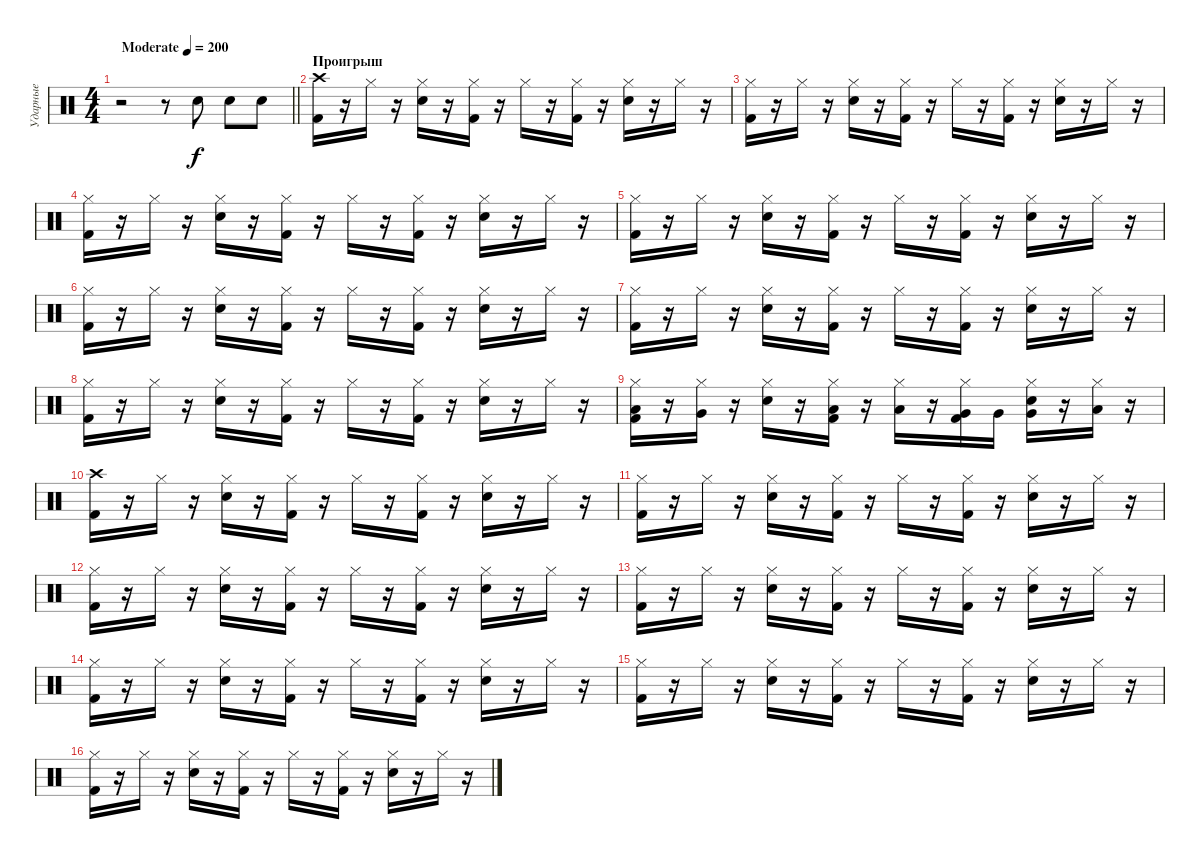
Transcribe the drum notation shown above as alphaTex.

\track ("Ударные" "Ударные") {instrument percussion}
\staff {score}
\articulation defaults
\ts (4 4)
\tempo (200 "Moderate")
\clef neutral
\barLineRight lightlight
\ks c
r.2{dy f} r.8 "Snare (hit) 2".8 "Snare (hit) 2".8 "Snare (hit) 2".8 |
\section ("" "Проигрыш")
("Kick (hit) 2" "Crash high (hit)").16 r.16 "Hi-Hat (closed)".16 r.16 ("Snare (hit) 2" "Hi-Hat (closed)").16 r.16 ("Kick (hit) 2" "Hi-Hat (closed)").16 r.16 "Hi-Hat (closed)".16 r.16 ("Kick (hit) 2" "Hi-Hat (closed)").16 r.16 ("Snare (hit) 2" "Hi-Hat (closed)").16 r.16 "Hi-Hat (closed)".16 r.16 |
("Kick (hit) 2" "Hi-Hat (closed)").16 r.16 "Hi-Hat (closed)".16 r.16 ("Snare (hit) 2" "Hi-Hat (closed)").16 r.16 ("Kick (hit) 2" "Hi-Hat (closed)").16 r.16 "Hi-Hat (closed)".16 r.16 ("Kick (hit) 2" "Hi-Hat (closed)").16 r.16 ("Snare (hit) 2" "Hi-Hat (closed)").16 r.16 "Hi-Hat (closed)".16 r.16 |
("Kick (hit) 2" "Hi-Hat (closed)").16 r.16 "Hi-Hat (closed)".16 r.16 ("Snare (hit) 2" "Hi-Hat (closed)").16 r.16 ("Kick (hit) 2" "Hi-Hat (closed)").16 r.16 "Hi-Hat (closed)".16 r.16 ("Kick (hit) 2" "Hi-Hat (closed)").16 r.16 ("Snare (hit) 2" "Hi-Hat (closed)").16 r.16 "Hi-Hat (closed)".16 r.16 |
("Kick (hit) 2" "Hi-Hat (closed)").16 r.16 "Hi-Hat (closed)".16 r.16 ("Snare (hit) 2" "Hi-Hat (closed)").16 r.16 ("Kick (hit) 2" "Hi-Hat (closed)").16 r.16 "Hi-Hat (closed)".16 r.16 ("Kick (hit) 2" "Hi-Hat (closed)").16 r.16 ("Snare (hit) 2" "Hi-Hat (closed)").16 r.16 "Hi-Hat (closed)".16 r.16 |
("Kick (hit) 2" "Hi-Hat (closed)").16 r.16 "Hi-Hat (closed)".16 r.16 ("Snare (hit) 2" "Hi-Hat (closed)").16 r.16 ("Kick (hit) 2" "Hi-Hat (closed)").16 r.16 "Hi-Hat (closed)".16 r.16 ("Kick (hit) 2" "Hi-Hat (closed)").16 r.16 ("Snare (hit) 2" "Hi-Hat (closed)").16 r.16 "Hi-Hat (closed)".16 r.16 |
("Kick (hit) 2" "Hi-Hat (closed)").16 r.16 "Hi-Hat (closed)".16 r.16 ("Snare (hit) 2" "Hi-Hat (closed)").16 r.16 ("Kick (hit) 2" "Hi-Hat (closed)").16 r.16 "Hi-Hat (closed)".16 r.16 ("Kick (hit) 2" "Hi-Hat (closed)").16 r.16 ("Snare (hit) 2" "Hi-Hat (closed)").16 r.16 "Hi-Hat (closed)".16 r.16 |
("Kick (hit) 2" "Hi-Hat (closed)").16 r.16 "Hi-Hat (closed)".16 r.16 ("Snare (hit) 2" "Hi-Hat (closed)").16 r.16 ("Kick (hit) 2" "Hi-Hat (closed)").16 r.16 "Hi-Hat (closed)".16 r.16 ("Kick (hit) 2" "Hi-Hat (closed)").16 r.16 ("Snare (hit) 2" "Hi-Hat (closed)").16 r.16 "Hi-Hat (closed)".16 r.16 |
("Kick (hit) 2" "Low Floor Tom (hit)" "Hi-Hat (closed)").16 r.16 ("Very Low Tom (hit)" "Hi-Hat (closed)").16 r.16 ("Snare (hit) 2" "Hi-Hat (closed)").16 r.16 ("Kick (hit) 2" "Low Floor Tom (hit)" "Hi-Hat (closed)").16 r.16 ("Low Floor Tom (hit)" "Hi-Hat (closed)").16 r.16 ("Kick (hit) 2" "Very Low Tom (hit)" "Hi-Hat (closed)").16 "Very Low Tom (hit)".16 ("Snare (hit) 2" "Very Low Tom (hit)" "Hi-Hat (closed)").16 r.16 ("Low Tom (hit)" "Hi-Hat (closed)").16 r.16 |
("Kick (hit) 2" "Crash high (hit)").16 r.16 "Hi-Hat (closed)".16 r.16 ("Snare (hit) 2" "Hi-Hat (closed)").16 r.16 ("Kick (hit) 2" "Hi-Hat (closed)").16 r.16 "Hi-Hat (closed)".16 r.16 ("Kick (hit) 2" "Hi-Hat (closed)").16 r.16 ("Snare (hit) 2" "Hi-Hat (closed)").16 r.16 "Hi-Hat (closed)".16 r.16 |
("Kick (hit) 2" "Hi-Hat (closed)").16 r.16 "Hi-Hat (closed)".16 r.16 ("Snare (hit) 2" "Hi-Hat (closed)").16 r.16 ("Kick (hit) 2" "Hi-Hat (closed)").16 r.16 "Hi-Hat (closed)".16 r.16 ("Kick (hit) 2" "Hi-Hat (closed)").16 r.16 ("Snare (hit) 2" "Hi-Hat (closed)").16 r.16 "Hi-Hat (closed)".16 r.16 |
("Kick (hit) 2" "Hi-Hat (closed)").16 r.16 "Hi-Hat (closed)".16 r.16 ("Snare (hit) 2" "Hi-Hat (closed)").16 r.16 ("Kick (hit) 2" "Hi-Hat (closed)").16 r.16 "Hi-Hat (closed)".16 r.16 ("Kick (hit) 2" "Hi-Hat (closed)").16 r.16 ("Snare (hit) 2" "Hi-Hat (closed)").16 r.16 "Hi-Hat (closed)".16 r.16 |
("Kick (hit) 2" "Hi-Hat (closed)").16 r.16 "Hi-Hat (closed)".16 r.16 ("Snare (hit) 2" "Hi-Hat (closed)").16 r.16 ("Kick (hit) 2" "Hi-Hat (closed)").16 r.16 "Hi-Hat (closed)".16 r.16 ("Kick (hit) 2" "Hi-Hat (closed)").16 r.16 ("Snare (hit) 2" "Hi-Hat (closed)").16 r.16 "Hi-Hat (closed)".16 r.16 |
("Kick (hit) 2" "Hi-Hat (closed)").16 r.16 "Hi-Hat (closed)".16 r.16 ("Snare (hit) 2" "Hi-Hat (closed)").16 r.16 ("Kick (hit) 2" "Hi-Hat (closed)").16 r.16 "Hi-Hat (closed)".16 r.16 ("Kick (hit) 2" "Hi-Hat (closed)").16 r.16 ("Snare (hit) 2" "Hi-Hat (closed)").16 r.16 "Hi-Hat (closed)".16 r.16 |
("Kick (hit) 2" "Hi-Hat (closed)").16 r.16 "Hi-Hat (closed)".16 r.16 ("Snare (hit) 2" "Hi-Hat (closed)").16 r.16 ("Kick (hit) 2" "Hi-Hat (closed)").16 r.16 "Hi-Hat (closed)".16 r.16 ("Kick (hit) 2" "Hi-Hat (closed)").16 r.16 ("Snare (hit) 2" "Hi-Hat (closed)").16 r.16 "Hi-Hat (closed)".16 r.16 |
("Kick (hit) 2" "Hi-Hat (closed)").16 r.16 "Hi-Hat (closed)".16 r.16 ("Snare (hit) 2" "Hi-Hat (closed)").16 r.16 ("Kick (hit) 2" "Hi-Hat (closed)").16 r.16 "Hi-Hat (closed)".16 r.16 ("Kick (hit) 2" "Hi-Hat (closed)").16 r.16 ("Snare (hit) 2" "Hi-Hat (closed)").16 r.16 "Hi-Hat (closed)".16 r.16
